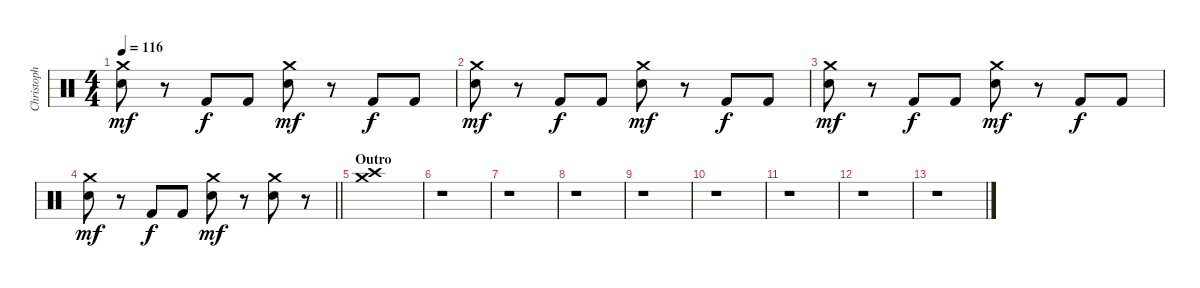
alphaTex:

\track ("Christoph Schneider" "Christoph ") {instrument percussion}
\staff {score}
\articulation defaults
\ts (4 4)
\tempo 116
\clef neutral
\ks c
("Crash medium (hit)" "Snare (hit) 2").8{dy mf} r.8 "Kick (hit) 2".8{dy f} "Kick (hit) 2".8 ("Crash medium (hit)" "Snare (hit) 2").8{dy mf} r.8 "Kick (hit) 2".8{dy f} "Kick (hit) 2".8 |
("Crash medium (hit)" "Snare (hit) 2").8{dy mf} r.8 "Kick (hit) 2".8{dy f} "Kick (hit) 2".8 ("Crash medium (hit)" "Snare (hit) 2").8{dy mf} r.8 "Kick (hit) 2".8{dy f} "Kick (hit) 2".8 |
("Crash medium (hit)" "Snare (hit) 2").8{dy mf} r.8 "Kick (hit) 2".8{dy f} "Kick (hit) 2".8 ("Crash medium (hit)" "Snare (hit) 2").8{dy mf} r.8 "Kick (hit) 2".8{dy f} "Kick (hit) 2".8 |
\barLineRight lightlight
("Crash medium (hit)" "Snare (hit) 2").8{dy mf} r.8 "Kick (hit) 2".8{dy f} "Kick (hit) 2".8 ("Crash medium (hit)" "Snare (hit) 2").8{dy mf} r.8 ("Crash medium (hit)" "Snare (hit) 2").8 r.8 |
\section ("" "Outro")
("Crash high (hit)" "Crash medium (hit)").1 |
r.1 |
r.1 |
r.1 |
r.1 |
r.1 |
r.1 |
r.1 |
r.1
